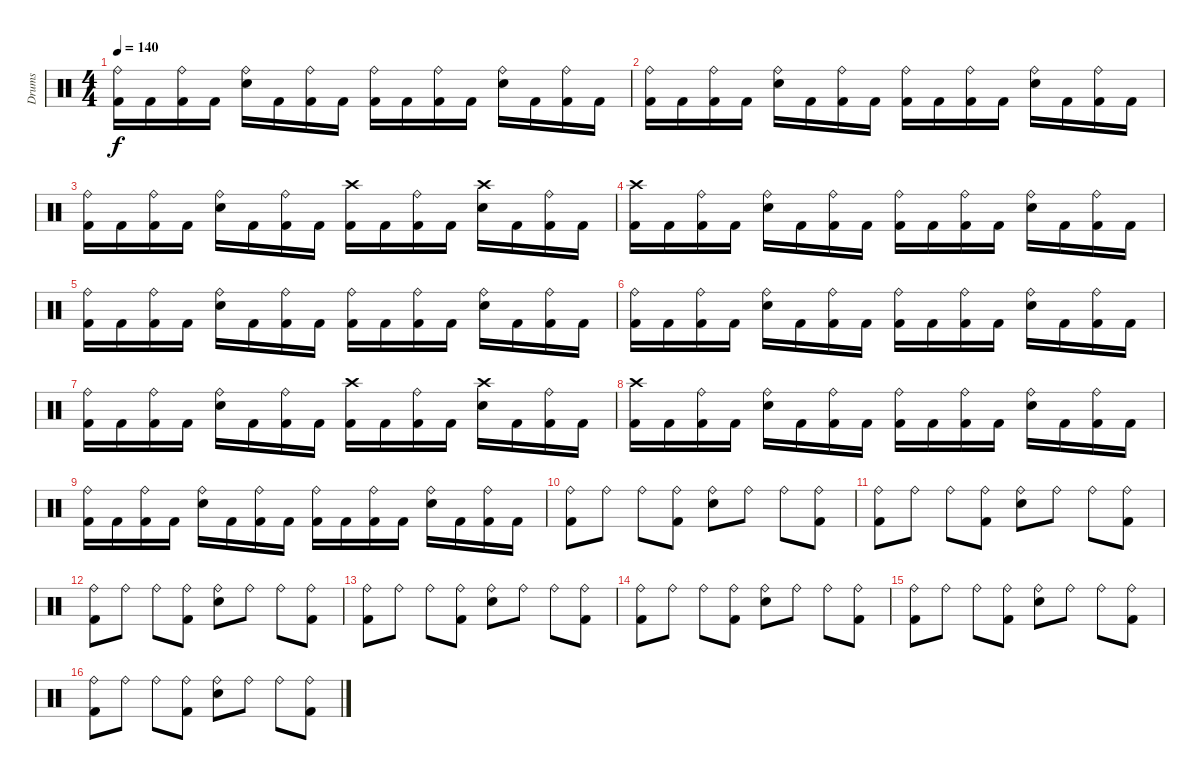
\track ("Drums" "Drums") {instrument percussion}
\staff {score}
\articulation defaults
\ts (4 4)
\tempo 140
\clef neutral
\ks c
("Ride (bell)" "Kick (hit) 2").16{dy f} "Kick (hit) 2".16 ("Ride (bell)" "Kick (hit) 2").16 "Kick (hit) 2".16 ("Ride (bell)" "Snare (hit) 2").16 "Kick (hit) 2".16 ("Ride (bell)" "Kick (hit) 2").16 "Kick (hit) 2".16 ("Ride (bell)" "Kick (hit) 2").16 "Kick (hit) 2".16 ("Ride (bell)" "Kick (hit) 2").16 "Kick (hit) 2".16 ("Ride (bell)" "Snare (hit) 2").16 "Kick (hit) 2".16 ("Ride (bell)" "Kick (hit) 2").16 "Kick (hit) 2".16 |
("Ride (bell)" "Kick (hit) 2").16 "Kick (hit) 2".16 ("Ride (bell)" "Kick (hit) 2").16 "Kick (hit) 2".16 ("Ride (bell)" "Snare (hit) 2").16 "Kick (hit) 2".16 ("Ride (bell)" "Kick (hit) 2").16 "Kick (hit) 2".16 ("Ride (bell)" "Kick (hit) 2").16 "Kick (hit) 2".16 ("Ride (bell)" "Kick (hit) 2").16 "Kick (hit) 2".16 ("Ride (bell)" "Snare (hit) 2").16 "Kick (hit) 2".16 ("Ride (bell)" "Kick (hit) 2").16 "Kick (hit) 2".16 |
("Ride (bell)" "Kick (hit) 2").16 "Kick (hit) 2".16 ("Ride (bell)" "Kick (hit) 2").16 "Kick (hit) 2".16 ("Ride (bell)" "Snare (hit) 2").16 "Kick (hit) 2".16 ("Ride (bell)" "Kick (hit) 2").16 "Kick (hit) 2".16 ("Crash high (hit)" "Kick (hit) 2").16 "Kick (hit) 2".16 ("Ride (bell)" "Kick (hit) 2").16 "Kick (hit) 2".16 ("Crash high (hit)" "Snare (hit) 2").16 "Kick (hit) 2".16 ("Ride (bell)" "Kick (hit) 2").16 "Kick (hit) 2".16 |
("Crash high (hit)" "Kick (hit) 2").16 "Kick (hit) 2".16 ("Ride (bell)" "Kick (hit) 2").16 "Kick (hit) 2".16 ("Ride (bell)" "Snare (hit) 2").16 "Kick (hit) 2".16 ("Ride (bell)" "Kick (hit) 2").16 "Kick (hit) 2".16 ("Ride (bell)" "Kick (hit) 2").16 "Kick (hit) 2".16 ("Ride (bell)" "Kick (hit) 2").16 "Kick (hit) 2".16 ("Ride (bell)" "Snare (hit) 2").16 "Kick (hit) 2".16 ("Ride (bell)" "Kick (hit) 2").16 "Kick (hit) 2".16 |
("Ride (bell)" "Kick (hit) 2").16 "Kick (hit) 2".16 ("Ride (bell)" "Kick (hit) 2").16 "Kick (hit) 2".16 ("Ride (bell)" "Snare (hit) 2").16 "Kick (hit) 2".16 ("Ride (bell)" "Kick (hit) 2").16 "Kick (hit) 2".16 ("Ride (bell)" "Kick (hit) 2").16 "Kick (hit) 2".16 ("Ride (bell)" "Kick (hit) 2").16 "Kick (hit) 2".16 ("Ride (bell)" "Snare (hit) 2").16 "Kick (hit) 2".16 ("Ride (bell)" "Kick (hit) 2").16 "Kick (hit) 2".16 |
("Ride (bell)" "Kick (hit) 2").16 "Kick (hit) 2".16 ("Ride (bell)" "Kick (hit) 2").16 "Kick (hit) 2".16 ("Ride (bell)" "Snare (hit) 2").16 "Kick (hit) 2".16 ("Ride (bell)" "Kick (hit) 2").16 "Kick (hit) 2".16 ("Ride (bell)" "Kick (hit) 2").16 "Kick (hit) 2".16 ("Ride (bell)" "Kick (hit) 2").16 "Kick (hit) 2".16 ("Ride (bell)" "Snare (hit) 2").16 "Kick (hit) 2".16 ("Ride (bell)" "Kick (hit) 2").16 "Kick (hit) 2".16 |
("Ride (bell)" "Kick (hit) 2").16 "Kick (hit) 2".16 ("Ride (bell)" "Kick (hit) 2").16 "Kick (hit) 2".16 ("Ride (bell)" "Snare (hit) 2").16 "Kick (hit) 2".16 ("Ride (bell)" "Kick (hit) 2").16 "Kick (hit) 2".16 ("Crash high (hit)" "Kick (hit) 2").16 "Kick (hit) 2".16 ("Ride (bell)" "Kick (hit) 2").16 "Kick (hit) 2".16 ("Crash high (hit)" "Snare (hit) 2").16 "Kick (hit) 2".16 ("Ride (bell)" "Kick (hit) 2").16 "Kick (hit) 2".16 |
("Crash high (hit)" "Kick (hit) 2").16 "Kick (hit) 2".16 ("Ride (bell)" "Kick (hit) 2").16 "Kick (hit) 2".16 ("Ride (bell)" "Snare (hit) 2").16 "Kick (hit) 2".16 ("Ride (bell)" "Kick (hit) 2").16 "Kick (hit) 2".16 ("Ride (bell)" "Kick (hit) 2").16 "Kick (hit) 2".16 ("Ride (bell)" "Kick (hit) 2").16 "Kick (hit) 2".16 ("Ride (bell)" "Snare (hit) 2").16 "Kick (hit) 2".16 ("Ride (bell)" "Kick (hit) 2").16 "Kick (hit) 2".16 |
("Ride (bell)" "Kick (hit) 2").16 "Kick (hit) 2".16 ("Ride (bell)" "Kick (hit) 2").16 "Kick (hit) 2".16 ("Ride (bell)" "Snare (hit) 2").16 "Kick (hit) 2".16 ("Ride (bell)" "Kick (hit) 2").16 "Kick (hit) 2".16 ("Ride (bell)" "Kick (hit) 2").16 "Kick (hit) 2".16 ("Ride (bell)" "Kick (hit) 2").16 "Kick (hit) 2".16 ("Ride (bell)" "Snare (hit) 2").16 "Kick (hit) 2".16 ("Ride (bell)" "Kick (hit) 2").16 "Kick (hit) 2".16 |
("Ride (bell)" "Kick (hit) 2").8 "Ride (bell)".8 "Ride (bell)".8 ("Ride (bell)" "Kick (hit) 2").8 ("Ride (bell)" "Snare (hit) 2").8 "Ride (bell)".8 "Ride (bell)".8 ("Ride (bell)" "Kick (hit) 2").8 |
("Ride (bell)" "Kick (hit) 2").8 "Ride (bell)".8 "Ride (bell)".8 ("Ride (bell)" "Kick (hit) 2").8 ("Ride (bell)" "Snare (hit) 2").8 "Ride (bell)".8 "Ride (bell)".8 ("Ride (bell)" "Kick (hit) 2").8 |
("Ride (bell)" "Kick (hit) 2").8 "Ride (bell)".8 "Ride (bell)".8 ("Ride (bell)" "Kick (hit) 2").8 ("Ride (bell)" "Snare (hit) 2").8 "Ride (bell)".8 "Ride (bell)".8 ("Ride (bell)" "Kick (hit) 2").8 |
("Ride (bell)" "Kick (hit) 2").8 "Ride (bell)".8 "Ride (bell)".8 ("Ride (bell)" "Kick (hit) 2").8 ("Ride (bell)" "Snare (hit) 2").8 "Ride (bell)".8 "Ride (bell)".8 ("Ride (bell)" "Kick (hit) 2").8 |
("Ride (bell)" "Kick (hit) 2").8 "Ride (bell)".8 "Ride (bell)".8 ("Ride (bell)" "Kick (hit) 2").8 ("Ride (bell)" "Snare (hit) 2").8 "Ride (bell)".8 "Ride (bell)".8 ("Ride (bell)" "Kick (hit) 2").8 |
("Ride (bell)" "Kick (hit) 2").8 "Ride (bell)".8 "Ride (bell)".8 ("Ride (bell)" "Kick (hit) 2").8 ("Ride (bell)" "Snare (hit) 2").8 "Ride (bell)".8 "Ride (bell)".8 ("Ride (bell)" "Kick (hit) 2").8 |
("Ride (bell)" "Kick (hit) 2").8 "Ride (bell)".8 "Ride (bell)".8 ("Ride (bell)" "Kick (hit) 2").8 ("Ride (bell)" "Snare (hit) 2").8 "Ride (bell)".8 "Ride (bell)".8 ("Ride (bell)" "Kick (hit) 2").8
